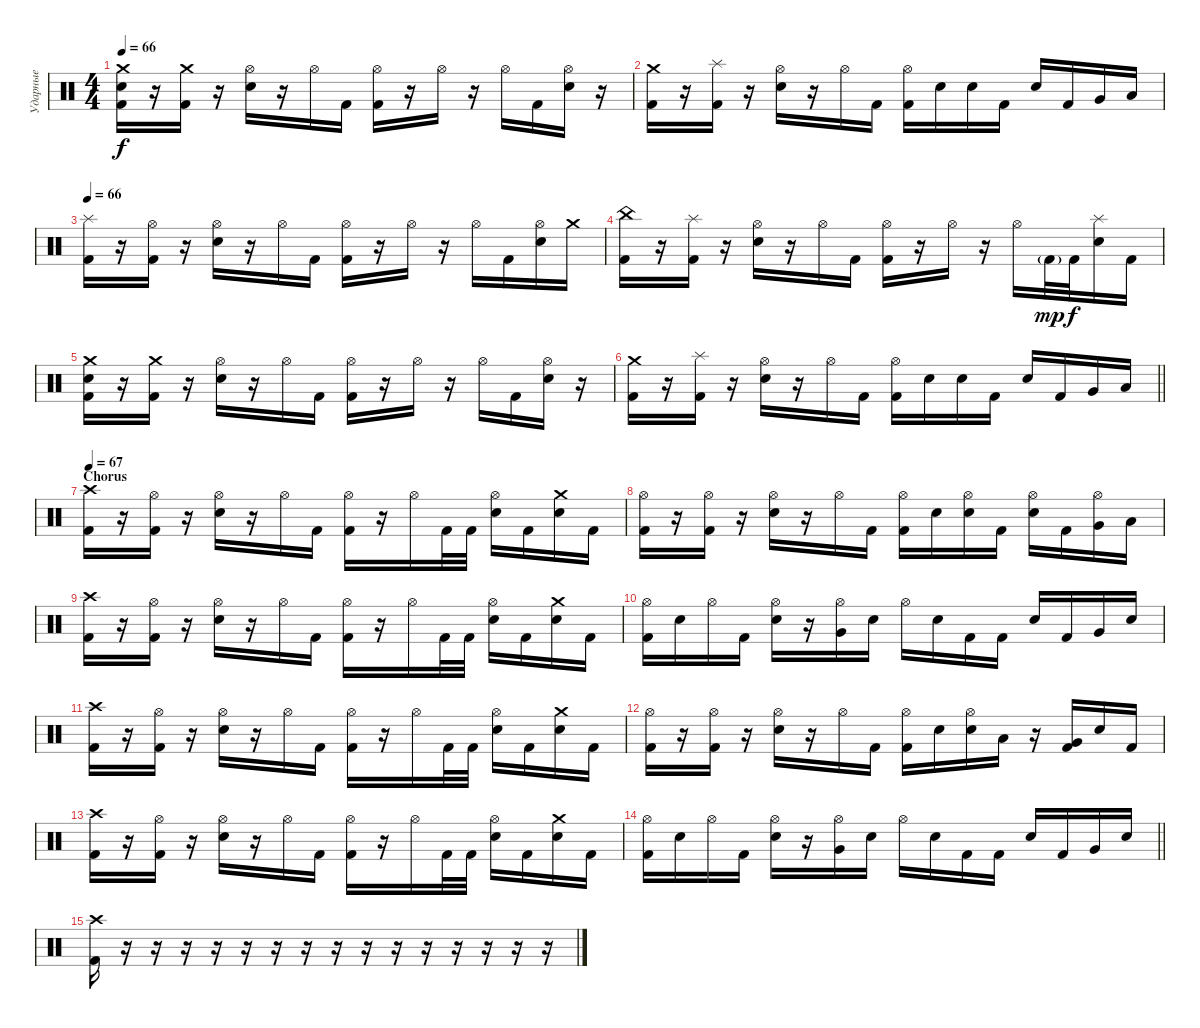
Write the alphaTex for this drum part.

\track ("Ударные" "Ударные") {instrument percussion}
\staff {score}
\articulation defaults
\ts (4 4)
\tempo 66
\clef neutral
\ks c
("Snare (hit) 2" "Crash medium (hit)" "Kick (hit) 2").16{dy f} r.16 ("Crash medium (hit)" "Kick (hit) 2").16 r.16 ("Hi-Hat (open)" "Snare (hit) 2").16 r.16 "Hi-Hat (open)".16 "Kick (hit) 2".16 ("Hi-Hat (open)" "Kick (hit) 2").16 r.16 "Hi-Hat (open)".16 r.16 "Hi-Hat (open)".16 "Kick (hit) 2".16 ("Hi-Hat (open)" "Snare (hit) 2").16 r.16 |
("Crash medium (hit)" "Kick (hit) 2").16 r.16 ("Splash (hit)" "Kick (hit) 2").16 r.16 ("Hi-Hat (open)" "Snare (hit) 2").16 r.16 "Hi-Hat (open)".16 "Kick (hit) 2".16 ("Hi-Hat (open)" "Kick (hit) 2").16 "Snare (hit) 2".16 "Snare (hit) 2".16 "Kick (hit) 2".16 "Snare (hit) 2".16 "Kick (hit) 2".16 "Very Low Tom (hit)".16 "Low Floor Tom (hit)".16 |
\tempo 66
("Splash (hit)" "Kick (hit) 2").16 r.16 ("Hi-Hat (open)" "Kick (hit) 2").16 r.16 ("Hi-Hat (open)" "Snare (hit) 2").16 r.16 "Hi-Hat (open)".16 "Kick (hit) 2".16 ("Hi-Hat (open)" "Kick (hit) 2").16 r.16 "Hi-Hat (open)".16 r.16 "Hi-Hat (open)".16 "Kick (hit) 2".16 ("Hi-Hat (open)" "Snare (hit) 2").16 "Crash medium (hit)".16 |
("China (hit)" "Kick (hit) 2").16 r.16 ("Splash (hit)" "Kick (hit) 2").16 r.16 ("Hi-Hat (open)" "Snare (hit) 2").16 r.16 "Hi-Hat (open)".16 "Kick (hit) 2".16 ("Hi-Hat (open)" "Kick (hit) 2").16 r.16 "Hi-Hat (open)".16 r.16 "Hi-Hat (open)".16 "Kick (hit) 2"{g}.32{dy mp} "Kick (hit) 2".32{dy f} ("Splash (hit)" "Snare (hit) 2").16 "Kick (hit) 2".16 |
("Snare (hit) 2" "Crash medium (hit)" "Kick (hit) 2").16 r.16 ("Crash medium (hit)" "Kick (hit) 2").16 r.16 ("Hi-Hat (open)" "Snare (hit) 2").16 r.16 "Hi-Hat (open)".16 "Kick (hit) 2".16 ("Hi-Hat (open)" "Kick (hit) 2").16 r.16 "Hi-Hat (open)".16 r.16 "Hi-Hat (open)".16 "Kick (hit) 2".16 ("Hi-Hat (open)" "Snare (hit) 2").16 r.16 |
\barLineRight lightlight
("Crash medium (hit)" "Kick (hit) 2").16 r.16 ("Splash (hit)" "Kick (hit) 2").16 r.16 ("Hi-Hat (open)" "Snare (hit) 2").16 r.16 "Hi-Hat (open)".16 "Kick (hit) 2".16 ("Hi-Hat (open)" "Kick (hit) 2").16 "Snare (hit) 2".16 "Snare (hit) 2".16 "Kick (hit) 2".16 "Snare (hit) 2".16 "Kick (hit) 2".16 "Very Low Tom (hit)".16 "Low Floor Tom (hit)".16 |
\section ("" "Chorus")
\tempo 67
("Crash high (hit)" "Kick (hit) 2").16 r.16 ("Hi-Hat (open)" "Kick (hit) 2").16 r.16 ("Hi-Hat (open)" "Snare (hit) 2").16 r.16 "Hi-Hat (open)".16 "Kick (hit) 2".16 ("Hi-Hat (open)" "Kick (hit) 2").16 r.16 "Hi-Hat (open)".16 "Kick (hit) 2".32 "Kick (hit) 2".32 ("Hi-Hat (open)" "Snare (hit) 2").16 "Kick (hit) 2".16 ("Crash medium (hit)" "Snare (hit) 2").16 "Kick (hit) 2".16 |
("Hi-Hat (open)" "Kick (hit) 2").16 r.16 ("Hi-Hat (open)" "Kick (hit) 2").16 r.16 ("Hi-Hat (open)" "Snare (hit) 2").16 r.16 "Hi-Hat (open)".16 "Kick (hit) 2".16 ("Hi-Hat (open)" "Kick (hit) 2").16 "Snare (hit) 2".16 ("Hi-Hat (open)" "Snare (hit) 2").16 "Kick (hit) 2".16 ("Hi-Hat (open)" "Snare (hit) 2").16 "Kick (hit) 2".16 ("Hi-Hat (open)" "Very Low Tom (hit)").16 "Low Floor Tom (hit)".16 |
("Crash high (hit)" "Kick (hit) 2").16 r.16 ("Hi-Hat (open)" "Kick (hit) 2").16 r.16 ("Hi-Hat (open)" "Snare (hit) 2").16 r.16 "Hi-Hat (open)".16 "Kick (hit) 2".16 ("Hi-Hat (open)" "Kick (hit) 2").16 r.16 "Hi-Hat (open)".16 "Kick (hit) 2".32 "Kick (hit) 2".32 ("Hi-Hat (open)" "Snare (hit) 2").16 "Kick (hit) 2".16 ("Crash medium (hit)" "Snare (hit) 2").16 "Kick (hit) 2".16 |
("Hi-Hat (open)" "Kick (hit) 2").16 "Snare (hit) 2".16 "Hi-Hat (open)".16 "Kick (hit) 2".16 ("Hi-Hat (open)" "Snare (hit) 2").16 r.16 ("Hi-Hat (open)" "Very Low Tom (hit)").16 "Snare (hit) 2".16 "Hi-Hat (open)".16 "Snare (hit) 2".16 "Kick (hit) 2".16 "Kick (hit) 2".16 "Snare (hit) 2".16 "Kick (hit) 2".16 "Very Low Tom (hit)".16 "Snare (hit) 2".16 |
("Crash high (hit)" "Kick (hit) 2").16 r.16 ("Hi-Hat (open)" "Kick (hit) 2").16 r.16 ("Hi-Hat (open)" "Snare (hit) 2").16 r.16 "Hi-Hat (open)".16 "Kick (hit) 2".16 ("Hi-Hat (open)" "Kick (hit) 2").16 r.16 "Hi-Hat (open)".16 "Kick (hit) 2".32 "Kick (hit) 2".32 ("Hi-Hat (open)" "Snare (hit) 2").16 "Kick (hit) 2".16 ("Crash medium (hit)" "Snare (hit) 2").16 "Kick (hit) 2".16 |
("Hi-Hat (open)" "Kick (hit) 2").16 r.16 ("Hi-Hat (open)" "Kick (hit) 2").16 r.16 ("Hi-Hat (open)" "Snare (hit) 2").16 r.16 "Hi-Hat (open)".16 "Kick (hit) 2".16 ("Hi-Hat (open)" "Kick (hit) 2").16 "Snare (hit) 2".16 ("Hi-Hat (open)" "Snare (hit) 2").16 "Low Floor Tom (hit)".16 r.16 ("Very Low Tom (hit)" "Kick (hit) 2").16 "Snare (hit) 2".16 "Kick (hit) 2".16 |
("Crash high (hit)" "Kick (hit) 2").16 r.16 ("Hi-Hat (open)" "Kick (hit) 2").16 r.16 ("Hi-Hat (open)" "Snare (hit) 2").16 r.16 "Hi-Hat (open)".16 "Kick (hit) 2".16 ("Hi-Hat (open)" "Kick (hit) 2").16 r.16 "Hi-Hat (open)".16 "Kick (hit) 2".32 "Kick (hit) 2".32 ("Hi-Hat (open)" "Snare (hit) 2").16 "Kick (hit) 2".16 ("Crash medium (hit)" "Snare (hit) 2").16 "Kick (hit) 2".16 |
\barLineRight lightlight
("Hi-Hat (open)" "Kick (hit) 2").16 "Snare (hit) 2".16 "Hi-Hat (open)".16 "Kick (hit) 2".16 ("Hi-Hat (open)" "Snare (hit) 2").16 r.16 ("Hi-Hat (open)" "Very Low Tom (hit)").16 "Snare (hit) 2".16 "Hi-Hat (open)".16 "Snare (hit) 2".16 "Kick (hit) 2".16 "Kick (hit) 2".16 "Snare (hit) 2".16 "Kick (hit) 2".16 "Very Low Tom (hit)".16 "Snare (hit) 2".16 |
("Kick (hit) 2" "Crash high (hit)").16 r.16 r.16 r.16 r.16 r.16 r.16 r.16 r.16 r.16 r.16 r.16 r.16 r.16 r.16 r.16
